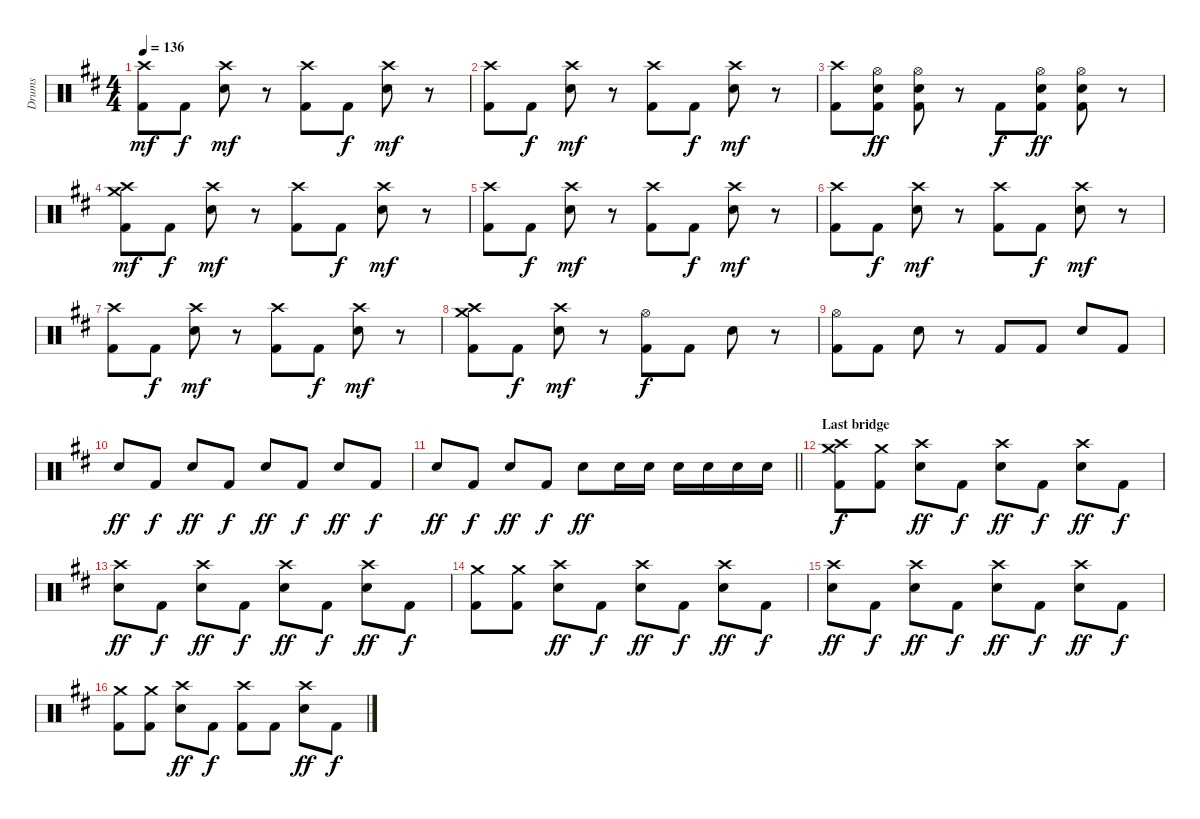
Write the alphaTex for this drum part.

\track ("Drums" "Drums") {instrument percussion}
\staff {score}
\articulation defaults
\ts (4 4)
\tempo 136
\clef neutral
\ks d
("Crash high (hit)" "Kick (hit) 2").8{dy mf} "Kick (hit) 2".8{dy f} ("Crash high (hit)" "Electric Snare (hit)").8{dy mf} r.8 ("Crash high (hit)" "Kick (hit) 2").8 "Kick (hit) 2".8{dy f} ("Crash high (hit)" "Electric Snare (hit)").8{dy mf} r.8 |
("Crash high (hit)" "Kick (hit) 2").8 "Kick (hit) 2".8{dy f} ("Crash high (hit)" "Electric Snare (hit)").8{dy mf} r.8 ("Crash high (hit)" "Kick (hit) 2").8 "Kick (hit) 2".8{dy f} ("Crash high (hit)" "Electric Snare (hit)").8{dy mf} r.8 |
("Crash high (hit)" "Kick (hit) 2").8 ("Hi-Hat (open)" "Electric Snare (hit)" "Kick (hit) 2").8{dy ff} ("Hi-Hat (open)" "Electric Snare (hit)" "Kick (hit) 2").8 r.8 "Kick (hit) 2".8{dy f} ("Hi-Hat (open)" "Electric Snare (hit)" "Kick (hit) 2").8{dy ff} ("Hi-Hat (open)" "Electric Snare (hit)" "Kick (hit) 2").8 r.8 |
("Crash medium (hit)" "Crash high (hit)" "Kick (hit) 2").8{dy mf} "Kick (hit) 2".8{dy f} ("Crash high (hit)" "Electric Snare (hit)").8{dy mf} r.8 ("Crash high (hit)" "Kick (hit) 2").8 "Kick (hit) 2".8{dy f} ("Crash high (hit)" "Electric Snare (hit)").8{dy mf} r.8 |
("Crash high (hit)" "Kick (hit) 2").8 "Kick (hit) 2".8{dy f} ("Crash high (hit)" "Electric Snare (hit)").8{dy mf} r.8 ("Crash high (hit)" "Kick (hit) 2").8 "Kick (hit) 2".8{dy f} ("Crash high (hit)" "Electric Snare (hit)").8{dy mf} r.8 |
("Crash high (hit)" "Kick (hit) 2").8 "Kick (hit) 2".8{dy f} ("Crash high (hit)" "Electric Snare (hit)").8{dy mf} r.8 ("Crash high (hit)" "Kick (hit) 2").8 "Kick (hit) 2".8{dy f} ("Crash high (hit)" "Electric Snare (hit)").8{dy mf} r.8 |
("Crash high (hit)" "Kick (hit) 2").8 "Kick (hit) 2".8{dy f} ("Crash high (hit)" "Electric Snare (hit)").8{dy mf} r.8 ("Crash high (hit)" "Kick (hit) 2").8 "Kick (hit) 2".8{dy f} ("Crash high (hit)" "Electric Snare (hit)").8{dy mf} r.8 |
("Crash medium (hit)" "Crash high (hit)" "Kick (hit) 2").8 "Kick (hit) 2".8{dy f} ("Crash high (hit)" "Electric Snare (hit)").8{dy mf} r.8 ("Hi-Hat (open)" "Kick (hit) 2").8{dy f} "Kick (hit) 2".8 "Electric Snare (hit)".8 r.8 |
("Hi-Hat (open)" "Kick (hit) 2").8 "Kick (hit) 2".8 "Electric Snare (hit)".8 r.8 "Kick (hit) 2".8 "Kick (hit) 2".8 "Electric Snare (hit)".8 "Kick (hit) 2".8 |
"Electric Snare (hit)".8{dy ff} "Kick (hit) 2".8{dy f} "Electric Snare (hit)".8{dy ff} "Kick (hit) 2".8{dy f} "Electric Snare (hit)".8{dy ff} "Kick (hit) 2".8{dy f} "Electric Snare (hit)".8{dy ff} "Kick (hit) 2".8{dy f} |
\barLineRight lightlight "Electric Snare (hit)".8{dy ff} "Kick (hit) 2".8{dy f} "Electric Snare (hit)".8{dy ff} "Kick (hit) 2".8{dy f} "Electric Snare (hit)".8{dy ff} "Electric Snare (hit)".16 "Electric Snare (hit)".16 "Electric Snare (hit)".16 "Electric Snare (hit)".16 "Electric Snare (hit)".16 "Electric Snare (hit)".16
|
\section ("" "Last bridge")
("Crash medium (hit)" "Crash high (hit)" "Kick (hit) 2").8{dy f} ("Crash medium (hit)" "Kick (hit) 2").8 ("Crash high (hit)" "Electric Snare (hit)").8{dy ff} "Kick (hit) 2".8{dy f} ("Crash high (hit)" "Electric Snare (hit)").8{dy ff} "Kick (hit) 2".8{dy f} ("Crash high (hit)" "Electric Snare (hit)").8{dy ff} "Kick (hit) 2".8{dy f} |
("Crash high (hit)" "Electric Snare (hit)").8{dy ff} "Kick (hit) 2".8{dy f} ("Crash high (hit)" "Electric Snare (hit)").8{dy ff} "Kick (hit) 2".8{dy f} ("Crash high (hit)" "Electric Snare (hit)").8{dy ff} "Kick (hit) 2".8{dy f} ("Crash high (hit)" "Electric Snare (hit)").8{dy ff} "Kick (hit) 2".8{dy f} |
("Crash medium (hit)" "Kick (hit) 2").8 ("Crash medium (hit)" "Kick (hit) 2").8 ("Crash high (hit)" "Electric Snare (hit)").8{dy ff} "Kick (hit) 2".8{dy f} ("Crash high (hit)" "Electric Snare (hit)").8{dy ff} "Kick (hit) 2".8{dy f} ("Crash high (hit)" "Electric Snare (hit)").8{dy ff} "Kick (hit) 2".8{dy f} |
("Crash high (hit)" "Electric Snare (hit)").8{dy ff} "Kick (hit) 2".8{dy f} ("Crash high (hit)" "Electric Snare (hit)").8{dy ff} "Kick (hit) 2".8{dy f} ("Crash high (hit)" "Electric Snare (hit)").8{dy ff} "Kick (hit) 2".8{dy f} ("Crash high (hit)" "Electric Snare (hit)").8{dy ff} "Kick (hit) 2".8{dy f} |
("Crash medium (hit)" "Kick (hit) 2").8 ("Crash medium (hit)" "Kick (hit) 2").8 ("Crash high (hit)" "Electric Snare (hit)").8{dy ff} "Kick (hit) 2".8{dy f} ("Crash high (hit)" "Kick (hit) 2").8 "Kick (hit) 2".8 ("Crash high (hit)" "Electric Snare (hit)").8{dy ff} "Kick (hit) 2".8{dy f}
